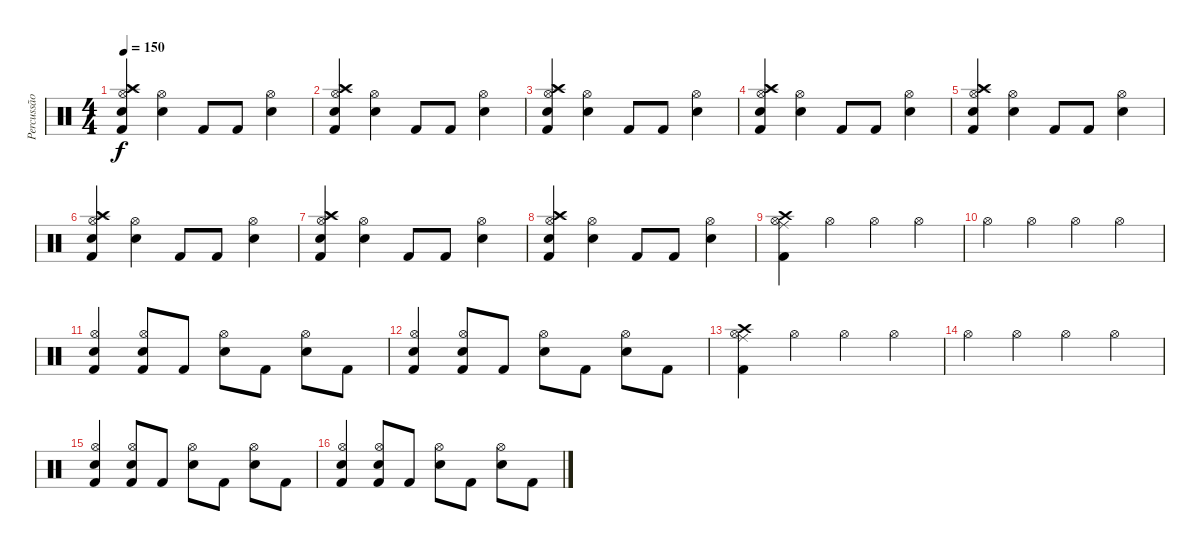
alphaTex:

\track ("Percussão" "Percussão") {instrument percussion}
\staff {score}
\articulation defaults
\ts (4 4)
\tempo 150
\clef neutral
\ks c
("Kick (hit) 2" "Crash high (hit)" "Splash (hit)" "Hi-Hat (open)" "Electric Snare (hit)").4{dy f} ("Hi-Hat (open)" "Electric Snare (hit)").4 "Kick (hit) 2".8 "Kick (hit) 2".8 ("Hi-Hat (open)" "Electric Snare (hit)").4 |
("Kick (hit) 2" "Crash high (hit)" "Splash (hit)" "Hi-Hat (open)" "Electric Snare (hit)").4 ("Hi-Hat (open)" "Electric Snare (hit)").4 "Kick (hit) 2".8 "Kick (hit) 2".8 ("Hi-Hat (open)" "Electric Snare (hit)").4 |
("Kick (hit) 2" "Crash high (hit)" "Splash (hit)" "Hi-Hat (open)" "Electric Snare (hit)").4 ("Hi-Hat (open)" "Electric Snare (hit)").4 "Kick (hit) 2".8 "Kick (hit) 2".8 ("Hi-Hat (open)" "Electric Snare (hit)").4 |
("Kick (hit) 2" "Crash high (hit)" "Splash (hit)" "Hi-Hat (open)" "Electric Snare (hit)").4 ("Hi-Hat (open)" "Electric Snare (hit)").4 "Kick (hit) 2".8 "Kick (hit) 2".8 ("Hi-Hat (open)" "Electric Snare (hit)").4 |
("Kick (hit) 2" "Crash high (hit)" "Splash (hit)" "Hi-Hat (open)" "Electric Snare (hit)").4 ("Hi-Hat (open)" "Electric Snare (hit)").4 "Kick (hit) 2".8 "Kick (hit) 2".8 ("Hi-Hat (open)" "Electric Snare (hit)").4 |
("Kick (hit) 2" "Crash high (hit)" "Splash (hit)" "Hi-Hat (open)" "Electric Snare (hit)").4 ("Hi-Hat (open)" "Electric Snare (hit)").4 "Kick (hit) 2".8 "Kick (hit) 2".8 ("Hi-Hat (open)" "Electric Snare (hit)").4 |
("Kick (hit) 2" "Crash high (hit)" "Splash (hit)" "Hi-Hat (open)" "Electric Snare (hit)").4 ("Hi-Hat (open)" "Electric Snare (hit)").4 "Kick (hit) 2".8 "Kick (hit) 2".8 ("Hi-Hat (open)" "Electric Snare (hit)").4 |
("Kick (hit) 2" "Crash high (hit)" "Splash (hit)" "Hi-Hat (open)" "Electric Snare (hit)").4 ("Hi-Hat (open)" "Electric Snare (hit)").4 "Kick (hit) 2".8 "Kick (hit) 2".8 ("Hi-Hat (open)" "Electric Snare (hit)").4 |
("Kick (hit) 2" "Crash high (hit)" "Ride (middle)" "Hi-Hat (open)").4 "Hi-Hat (open)".4 "Hi-Hat (open)".4 "Hi-Hat (open)".4 |
"Hi-Hat (open)".4 "Hi-Hat (open)".4 "Hi-Hat (open)".4 "Hi-Hat (open)".4 |
("Kick (hit) 2" "Hi-Hat (open)" "Electric Snare (hit)").4 ("Kick (hit) 2" "Hi-Hat (open)" "Electric Snare (hit)").8 "Kick (hit) 2".8 ("Hi-Hat (open)" "Electric Snare (hit)").8 "Kick (hit) 2".8 ("Hi-Hat (open)" "Electric Snare (hit)").8 "Kick (hit) 2".8 |
("Kick (hit) 2" "Hi-Hat (open)" "Electric Snare (hit)").4 ("Kick (hit) 2" "Hi-Hat (open)" "Electric Snare (hit)").8 "Kick (hit) 2".8 ("Hi-Hat (open)" "Electric Snare (hit)").8 "Kick (hit) 2".8 ("Hi-Hat (open)" "Electric Snare (hit)").8 "Kick (hit) 2".8 |
("Kick (hit) 2" "Crash high (hit)" "Ride (middle)" "Hi-Hat (open)").4 "Hi-Hat (open)".4 "Hi-Hat (open)".4 "Hi-Hat (open)".4 |
"Hi-Hat (open)".4 "Hi-Hat (open)".4 "Hi-Hat (open)".4 "Hi-Hat (open)".4 |
("Kick (hit) 2" "Hi-Hat (open)" "Electric Snare (hit)").4 ("Kick (hit) 2" "Hi-Hat (open)" "Electric Snare (hit)").8 "Kick (hit) 2".8 ("Hi-Hat (open)" "Electric Snare (hit)").8 "Kick (hit) 2".8 ("Hi-Hat (open)" "Electric Snare (hit)").8 "Kick (hit) 2".8 |
("Kick (hit) 2" "Hi-Hat (open)" "Electric Snare (hit)").4 ("Kick (hit) 2" "Hi-Hat (open)" "Electric Snare (hit)").8 "Kick (hit) 2".8 ("Hi-Hat (open)" "Electric Snare (hit)").8 "Kick (hit) 2".8 ("Hi-Hat (open)" "Electric Snare (hit)").8 "Kick (hit) 2".8
